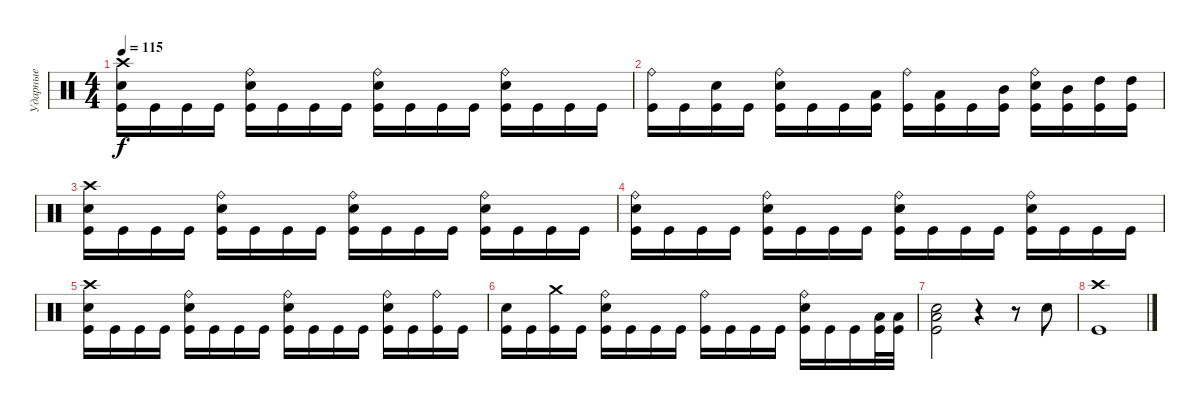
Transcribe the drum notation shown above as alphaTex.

\track ("Ударные" "Ударные") {instrument percussion}
\staff {score}
\articulation defaults
\ts (4 4)
\tempo 115
\clef neutral
\ks c
("Crash high (hit)" "Electric Snare (hit)" "Kick (hit)").16{dy f} "Kick (hit)".16 "Kick (hit)".16 "Kick (hit)".16 ("Ride (bell)" "Electric Snare (hit)" "Kick (hit)").16 "Kick (hit)".16 "Kick (hit)".16 "Kick (hit)".16 ("Ride (bell)" "Electric Snare (hit)" "Kick (hit)").16 "Kick (hit)".16 "Kick (hit)".16 "Kick (hit)".16 ("Ride (bell)" "Electric Snare (hit)" "Kick (hit)").16 "Kick (hit)".16 "Kick (hit)".16 "Kick (hit)".16 |
("Ride (bell)" "Kick (hit)").16 "Kick (hit)".16 ("Electric Snare (hit)" "Kick (hit)").16 "Kick (hit)".16 ("Ride (bell)" "Electric Snare (hit)" "Kick (hit)").16 "Kick (hit)".16 "Kick (hit)".16 ("Low Tom (hit)" "Kick (hit)").16 ("Ride (bell)" "Kick (hit)").16 ("Low Tom (hit)" "Kick (hit)").16 "Kick (hit)".16 ("Mid Tom (hit)" "Kick (hit)").16 ("Ride (bell)" "Electric Snare (hit)" "Kick (hit)").16 ("Mid Tom (hit)" "Kick (hit)").16 ("High Tom (hit)" "Kick (hit)").16 ("High Tom (hit)" "Kick (hit)").16 |
("Crash high (hit)" "Electric Snare (hit)" "Kick (hit)").16 "Kick (hit)".16 "Kick (hit)".16 "Kick (hit)".16 ("Ride (bell)" "Electric Snare (hit)" "Kick (hit)").16 "Kick (hit)".16 "Kick (hit)".16 "Kick (hit)".16 ("Ride (bell)" "Electric Snare (hit)" "Kick (hit)").16 "Kick (hit)".16 "Kick (hit)".16 "Kick (hit)".16 ("Ride (bell)" "Electric Snare (hit)" "Kick (hit)").16 "Kick (hit)".16 "Kick (hit)".16 "Kick (hit)".16 |
("Ride (bell)" "Electric Snare (hit)" "Kick (hit)").16 "Kick (hit)".16 "Kick (hit)".16 "Kick (hit)".16 ("Ride (bell)" "Electric Snare (hit)" "Kick (hit)").16 "Kick (hit)".16 "Kick (hit)".16 "Kick (hit)".16 ("Ride (bell)" "Electric Snare (hit)" "Kick (hit)").16 "Kick (hit)".16 "Kick (hit)".16 "Kick (hit)".16 ("Ride (bell)" "Electric Snare (hit)" "Kick (hit)").16 "Kick (hit)".16 "Kick (hit)".16 "Kick (hit)".16 |
("Crash high (hit)" "Electric Snare (hit)" "Kick (hit)").16 "Kick (hit)".16 "Kick (hit)".16 "Kick (hit)".16 ("Ride (bell)" "Electric Snare (hit)" "Kick (hit)").16 "Kick (hit)".16 "Kick (hit)".16 "Kick (hit)".16 ("Ride (bell)" "Electric Snare (hit)" "Kick (hit)").16 "Kick (hit)".16 "Kick (hit)".16 "Kick (hit)".16 ("Ride (bell)" "Electric Snare (hit)" "Kick (hit)").16 "Kick (hit)".16 ("Ride (bell)" "Kick (hit)").16 "Kick (hit)".16 |
("Electric Snare (hit)" "Kick (hit)").16 "Kick (hit)".16 ("Crash medium (hit)" "Kick (hit)").16 "Kick (hit)".16 ("Ride (bell)" "Electric Snare (hit)" "Kick (hit)").16 "Kick (hit)".16 "Kick (hit)".16 "Kick (hit)".16 ("Ride (bell)" "Kick (hit)").16 "Kick (hit)".16 "Kick (hit)".16 "Kick (hit)".16 ("Ride (bell)" "Electric Snare (hit)" "Kick (hit)").16 "Kick (hit)".16 "Kick (hit)".16 ("Low Tom (hit)" "Kick (hit)").32 ("Low Tom (hit)" "Kick (hit)").32 |
("Low Tom (hit)" "Electric Snare (hit)" "Kick (hit)").2 r.4 r.8 "Electric Snare (hit)".8 |
("Crash high (hit)" "Kick (hit)").1
